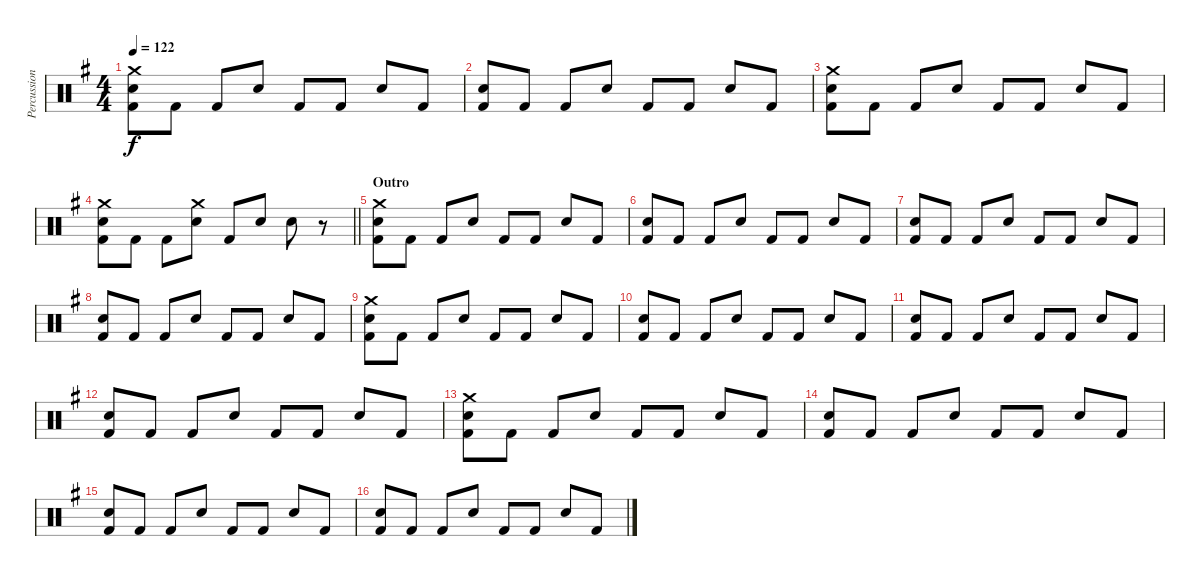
\track ("Percussion" "Percussion") {instrument percussion}
\staff {score}
\articulation defaults
\ts (4 4)
\tempo 122
\clef neutral
\ks g
("Crash medium (hit)" "Snare (hit) 2" "Kick (hit) 2").8{dy f} "Kick (hit) 2".8 "Kick (hit) 2".8 "Snare (hit) 2".8 "Kick (hit) 2".8 "Kick (hit) 2".8 "Snare (hit) 2".8 "Kick (hit) 2".8 |
("Snare (hit) 2" "Kick (hit) 2").8 "Kick (hit) 2".8 "Kick (hit) 2".8 "Snare (hit) 2".8 "Kick (hit) 2".8 "Kick (hit) 2".8 "Snare (hit) 2".8 "Kick (hit) 2".8 |
("Crash medium (hit)" "Snare (hit) 2" "Kick (hit) 2").8 "Kick (hit) 2".8 "Kick (hit) 2".8 "Snare (hit) 2".8 "Kick (hit) 2".8 "Kick (hit) 2".8 "Snare (hit) 2".8 "Kick (hit) 2".8 |
\barLineRight lightlight
("Crash medium (hit)" "Snare (hit) 2" "Kick (hit) 2").8 "Kick (hit) 2".8 "Kick (hit) 2".8 ("Crash medium (hit)" "Snare (hit) 2").8 "Kick (hit) 2".8 "Snare (hit) 2".8 "Snare (hit) 2".8 r.8 |
\section ("" "Outro")
("Crash medium (hit)" "Snare (hit) 2" "Kick (hit) 2").8 "Kick (hit) 2".8 "Kick (hit) 2".8 "Snare (hit) 2".8 "Kick (hit) 2".8 "Kick (hit) 2".8 "Snare (hit) 2".8 "Kick (hit) 2".8 |
("Snare (hit) 2" "Kick (hit) 2").8 "Kick (hit) 2".8 "Kick (hit) 2".8 "Snare (hit) 2".8 "Kick (hit) 2".8 "Kick (hit) 2".8 "Snare (hit) 2".8 "Kick (hit) 2".8 |
("Snare (hit) 2" "Kick (hit) 2").8 "Kick (hit) 2".8 "Kick (hit) 2".8 "Snare (hit) 2".8 "Kick (hit) 2".8 "Kick (hit) 2".8 "Snare (hit) 2".8 "Kick (hit) 2".8 |
("Snare (hit) 2" "Kick (hit) 2").8 "Kick (hit) 2".8 "Kick (hit) 2".8 "Snare (hit) 2".8 "Kick (hit) 2".8 "Kick (hit) 2".8 "Snare (hit) 2".8 "Kick (hit) 2".8 |
("Crash medium (hit)" "Snare (hit) 2" "Kick (hit) 2").8 "Kick (hit) 2".8 "Kick (hit) 2".8 "Snare (hit) 2".8 "Kick (hit) 2".8 "Kick (hit) 2".8 "Snare (hit) 2".8 "Kick (hit) 2".8 |
("Snare (hit) 2" "Kick (hit) 2").8 "Kick (hit) 2".8 "Kick (hit) 2".8 "Snare (hit) 2".8 "Kick (hit) 2".8 "Kick (hit) 2".8 "Snare (hit) 2".8 "Kick (hit) 2".8 |
("Snare (hit) 2" "Kick (hit) 2").8 "Kick (hit) 2".8 "Kick (hit) 2".8 "Snare (hit) 2".8 "Kick (hit) 2".8 "Kick (hit) 2".8 "Snare (hit) 2".8 "Kick (hit) 2".8 |
("Snare (hit) 2" "Kick (hit) 2").8 "Kick (hit) 2".8 "Kick (hit) 2".8 "Snare (hit) 2".8 "Kick (hit) 2".8 "Kick (hit) 2".8 "Snare (hit) 2".8 "Kick (hit) 2".8 |
("Crash medium (hit)" "Snare (hit) 2" "Kick (hit) 2").8 "Kick (hit) 2".8 "Kick (hit) 2".8 "Snare (hit) 2".8 "Kick (hit) 2".8 "Kick (hit) 2".8 "Snare (hit) 2".8 "Kick (hit) 2".8 |
("Snare (hit) 2" "Kick (hit) 2").8 "Kick (hit) 2".8 "Kick (hit) 2".8 "Snare (hit) 2".8 "Kick (hit) 2".8 "Kick (hit) 2".8 "Snare (hit) 2".8 "Kick (hit) 2".8 |
("Snare (hit) 2" "Kick (hit) 2").8 "Kick (hit) 2".8 "Kick (hit) 2".8 "Snare (hit) 2".8 "Kick (hit) 2".8 "Kick (hit) 2".8 "Snare (hit) 2".8 "Kick (hit) 2".8 |
("Snare (hit) 2" "Kick (hit) 2").8 "Kick (hit) 2".8 "Kick (hit) 2".8 "Snare (hit) 2".8 "Kick (hit) 2".8 "Kick (hit) 2".8 "Snare (hit) 2".8 "Kick (hit) 2".8
